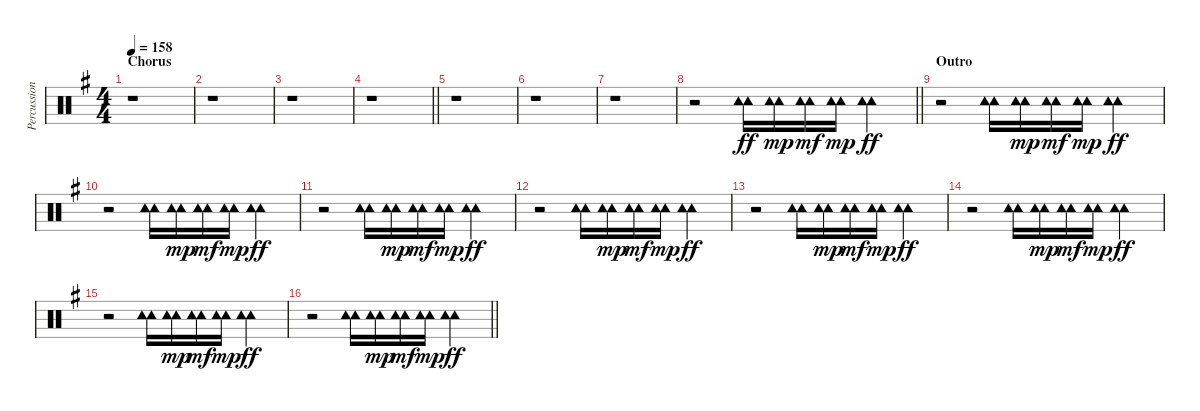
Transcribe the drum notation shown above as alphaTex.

\track ("Percussion" "Percussion") {instrument percussion}
\staff {score}
\articulation defaults
\ts (4 4)
\section ("" "Chorus")
\tempo 158
\clef neutral
\ks g
r.1{dy ff} |
r.1 |
r.1 |
\barLineRight lightlight
r.1 |
\section ("" "")
r.1 |
r.1 |
r.1 |
\barLineRight lightlight
r.2 ("Tambourine (hit)" "Tambourine (hit)").16 ("Tambourine (hit)" "Tambourine (hit)").16{dy mp} ("Tambourine (hit)" "Tambourine (hit)").16{dy mf} ("Tambourine (hit)" "Tambourine (hit)").16{dy mp} ("Tambourine (hit)" "Tambourine (hit)").4{dy ff} |
\section ("" "Outro")
r.2 ("Tambourine (hit)" "Tambourine (hit)").16 ("Tambourine (hit)" "Tambourine (hit)").16{dy mp} ("Tambourine (hit)" "Tambourine (hit)").16{dy mf} ("Tambourine (hit)" "Tambourine (hit)").16{dy mp} ("Tambourine (hit)" "Tambourine (hit)").4{dy ff} |
r.2 ("Tambourine (hit)" "Tambourine (hit)").16 ("Tambourine (hit)" "Tambourine (hit)").16{dy mp} ("Tambourine (hit)" "Tambourine (hit)").16{dy mf} ("Tambourine (hit)" "Tambourine (hit)").16{dy mp} ("Tambourine (hit)" "Tambourine (hit)").4{dy ff} |
r.2 ("Tambourine (hit)" "Tambourine (hit)").16 ("Tambourine (hit)" "Tambourine (hit)").16{dy mp} ("Tambourine (hit)" "Tambourine (hit)").16{dy mf} ("Tambourine (hit)" "Tambourine (hit)").16{dy mp} ("Tambourine (hit)" "Tambourine (hit)").4{dy ff} |
r.2 ("Tambourine (hit)" "Tambourine (hit)").16 ("Tambourine (hit)" "Tambourine (hit)").16{dy mp} ("Tambourine (hit)" "Tambourine (hit)").16{dy mf} ("Tambourine (hit)" "Tambourine (hit)").16{dy mp} ("Tambourine (hit)" "Tambourine (hit)").4{dy ff} |
r.2 ("Tambourine (hit)" "Tambourine (hit)").16 ("Tambourine (hit)" "Tambourine (hit)").16{dy mp} ("Tambourine (hit)" "Tambourine (hit)").16{dy mf} ("Tambourine (hit)" "Tambourine (hit)").16{dy mp} ("Tambourine (hit)" "Tambourine (hit)").4{dy ff} |
r.2 ("Tambourine (hit)" "Tambourine (hit)").16 ("Tambourine (hit)" "Tambourine (hit)").16{dy mp} ("Tambourine (hit)" "Tambourine (hit)").16{dy mf} ("Tambourine (hit)" "Tambourine (hit)").16{dy mp} ("Tambourine (hit)" "Tambourine (hit)").4{dy ff} |
r.2 ("Tambourine (hit)" "Tambourine (hit)").16 ("Tambourine (hit)" "Tambourine (hit)").16{dy mp} ("Tambourine (hit)" "Tambourine (hit)").16{dy mf} ("Tambourine (hit)" "Tambourine (hit)").16{dy mp} ("Tambourine (hit)" "Tambourine (hit)").4{dy ff} |
\barLineRight lightlight
r.2 ("Tambourine (hit)" "Tambourine (hit)").16 ("Tambourine (hit)" "Tambourine (hit)").16{dy mp} ("Tambourine (hit)" "Tambourine (hit)").16{dy mf} ("Tambourine (hit)" "Tambourine (hit)").16{dy mp} ("Tambourine (hit)" "Tambourine (hit)").4{dy ff}
